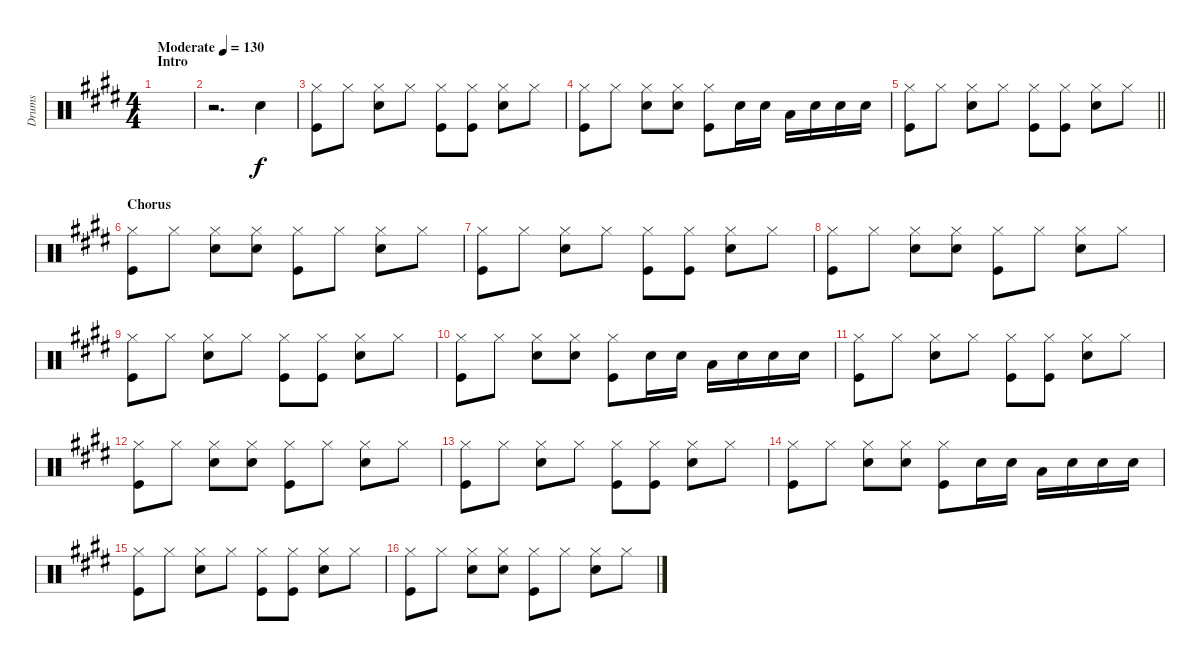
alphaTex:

\track ("Drums" "Drums") {instrument percussion}
\staff {score}
\articulation defaults
\ts (4 4)
\section ("" "Intro")
\tempo (130 "Moderate")
\clef neutral
\ks e
|
r.2{d} "Snare (hit) 2".4 |
("Hi-Hat (closed)" "Kick (hit)").8 "Hi-Hat (closed)".8 ("Hi-Hat (closed)" "Snare (hit) 2").8 "Hi-Hat (closed)".8 ("Hi-Hat (closed)" "Kick (hit)").8 ("Hi-Hat (closed)" "Kick (hit)").8 ("Hi-Hat (closed)" "Snare (hit) 2").8 "Hi-Hat (closed)".8 |
("Hi-Hat (closed)" "Kick (hit)").8 "Hi-Hat (closed)".8 ("Hi-Hat (closed)" "Snare (hit) 2").8 ("Hi-Hat (closed)" "Snare (hit) 2").8 ("Hi-Hat (closed)" "Kick (hit)").8 "Snare (hit) 2".16 "Snare (hit) 2".16 "Low Tom (hit)".16 "Snare (hit) 2".16 "Snare (hit) 2".16 "Snare (hit) 2".16 |
\barLineRight lightlight
("Hi-Hat (closed)" "Kick (hit)").8 "Hi-Hat (closed)".8 ("Hi-Hat (closed)" "Snare (hit) 2").8 "Hi-Hat (closed)".8 ("Hi-Hat (closed)" "Kick (hit)").8 ("Hi-Hat (closed)" "Kick (hit)").8 ("Hi-Hat (closed)" "Snare (hit) 2").8 "Hi-Hat (closed)".8 |
\section ("" "Chorus")
("Hi-Hat (closed)" "Kick (hit)").8 "Hi-Hat (closed)".8 ("Hi-Hat (closed)" "Snare (hit) 2").8 ("Hi-Hat (closed)" "Snare (hit) 2").8 ("Hi-Hat (closed)" "Kick (hit)").8 "Hi-Hat (closed)".8 ("Hi-Hat (closed)" "Snare (hit) 2").8 "Hi-Hat (closed)".8 |
("Hi-Hat (closed)" "Kick (hit)").8 "Hi-Hat (closed)".8 ("Hi-Hat (closed)" "Snare (hit) 2").8 "Hi-Hat (closed)".8 ("Hi-Hat (closed)" "Kick (hit)").8 ("Hi-Hat (closed)" "Kick (hit)").8 ("Hi-Hat (closed)" "Snare (hit) 2").8 "Hi-Hat (closed)".8 |
("Hi-Hat (closed)" "Kick (hit)").8 "Hi-Hat (closed)".8 ("Hi-Hat (closed)" "Snare (hit) 2").8 ("Hi-Hat (closed)" "Snare (hit) 2").8 ("Hi-Hat (closed)" "Kick (hit)").8 "Hi-Hat (closed)".8 ("Hi-Hat (closed)" "Snare (hit) 2").8 "Hi-Hat (closed)".8 |
("Hi-Hat (closed)" "Kick (hit)").8 "Hi-Hat (closed)".8 ("Hi-Hat (closed)" "Snare (hit) 2").8 "Hi-Hat (closed)".8 ("Hi-Hat (closed)" "Kick (hit)").8 ("Hi-Hat (closed)" "Kick (hit)").8 ("Hi-Hat (closed)" "Snare (hit) 2").8 "Hi-Hat (closed)".8 |
("Hi-Hat (closed)" "Kick (hit)").8 "Hi-Hat (closed)".8 ("Hi-Hat (closed)" "Snare (hit) 2").8 ("Hi-Hat (closed)" "Snare (hit) 2").8 ("Hi-Hat (closed)" "Kick (hit)").8 "Snare (hit) 2".16 "Snare (hit) 2".16 "Low Tom (hit)".16 "Snare (hit) 2".16 "Snare (hit) 2".16 "Snare (hit) 2".16 |
("Hi-Hat (closed)" "Kick (hit)").8 "Hi-Hat (closed)".8 ("Hi-Hat (closed)" "Snare (hit) 2").8 "Hi-Hat (closed)".8 ("Hi-Hat (closed)" "Kick (hit)").8 ("Hi-Hat (closed)" "Kick (hit)").8 ("Hi-Hat (closed)" "Snare (hit) 2").8 "Hi-Hat (closed)".8 |
("Hi-Hat (closed)" "Kick (hit)").8 "Hi-Hat (closed)".8 ("Hi-Hat (closed)" "Snare (hit) 2").8 ("Hi-Hat (closed)" "Snare (hit) 2").8 ("Hi-Hat (closed)" "Kick (hit)").8 "Hi-Hat (closed)".8 ("Hi-Hat (closed)" "Snare (hit) 2").8 "Hi-Hat (closed)".8 |
("Hi-Hat (closed)" "Kick (hit)").8 "Hi-Hat (closed)".8 ("Hi-Hat (closed)" "Snare (hit) 2").8 "Hi-Hat (closed)".8 ("Hi-Hat (closed)" "Kick (hit)").8 ("Hi-Hat (closed)" "Kick (hit)").8 ("Hi-Hat (closed)" "Snare (hit) 2").8 "Hi-Hat (closed)".8 |
("Hi-Hat (closed)" "Kick (hit)").8 "Hi-Hat (closed)".8 ("Hi-Hat (closed)" "Snare (hit) 2").8 ("Hi-Hat (closed)" "Snare (hit) 2").8 ("Hi-Hat (closed)" "Kick (hit)").8 "Snare (hit) 2".16 "Snare (hit) 2".16 "Low Tom (hit)".16 "Snare (hit) 2".16 "Snare (hit) 2".16 "Snare (hit) 2".16 |
("Hi-Hat (closed)" "Kick (hit)").8 "Hi-Hat (closed)".8 ("Hi-Hat (closed)" "Snare (hit) 2").8 "Hi-Hat (closed)".8 ("Hi-Hat (closed)" "Kick (hit)").8 ("Hi-Hat (closed)" "Kick (hit)").8 ("Hi-Hat (closed)" "Snare (hit) 2").8 "Hi-Hat (closed)".8 |
("Hi-Hat (closed)" "Kick (hit)").8 "Hi-Hat (closed)".8 ("Hi-Hat (closed)" "Snare (hit) 2").8 ("Hi-Hat (closed)" "Snare (hit) 2").8 ("Hi-Hat (closed)" "Kick (hit)").8 "Hi-Hat (closed)".8 ("Hi-Hat (closed)" "Snare (hit) 2").8 "Hi-Hat (closed)".8
